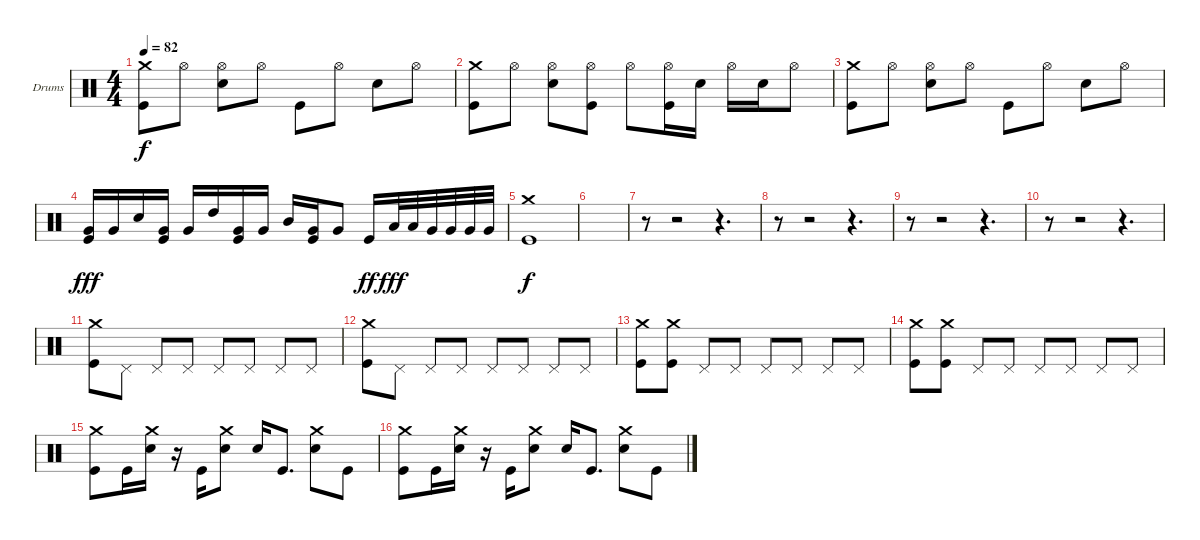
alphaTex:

\bracketExtendMode groupsimilarinstruments
\firstSystemTrackNameOrientation horizontal
\otherSystemsTrackNameOrientation horizontal
\track ("Drumkit" "Drums") {instrument percussion}
\staff {score}
\articulation defaults
\ts (4 4)
\tempo 82
\clef neutral
\ks c
("Crash medium (hit)" "Kick (hit)").8{dy f} "Hi-Hat (open)".8 ("Hi-Hat (open)" "Snare (hit) 2").8 "Hi-Hat (open)".8 "Kick (hit)".8 "Hi-Hat (open)".8 "Snare (hit) 2".8 "Hi-Hat (open)".8 |
("Crash medium (hit)" "Kick (hit)").8 "Hi-Hat (open)".8 ("Hi-Hat (open)" "Snare (hit) 2").8 ("Hi-Hat (open)" "Kick (hit)").8 "Hi-Hat (open)".8 ("Hi-Hat (open)" "Kick (hit)").16 "Snare (hit) 2".16 "Hi-Hat (open)".16 "Snare (hit) 2".16 "Hi-Hat (open)".8 |
("Crash medium (hit)" "Kick (hit)").8 "Hi-Hat (open)".8 ("Hi-Hat (open)" "Snare (hit) 2").8 "Hi-Hat (open)".8 "Kick (hit)".8 "Hi-Hat (open)".8 "Snare (hit) 2".8 "Hi-Hat (open)".8 |
("Very Low Tom (hit)" "Kick (hit)").16{dy fff} "Very Low Tom (hit)".16 "Snare (hit) 2".16 ("Very Low Tom (hit)" "Kick (hit)").16 "Very Low Tom (hit)".16 "High Tom (hit)".16 ("Very Low Tom (hit)" "Kick (hit)").16 "Very Low Tom (hit)".16 "Mid Tom (hit)".16 ("Very Low Tom (hit)" "Kick (hit)").16 "Very Low Tom (hit)".8 "Kick (hit)".16{dy ff} "Low Tom (hit)".32{dy fff} "Low Tom (hit)".32 "Very Low Tom (hit)".32 "Very Low Tom (hit)".32 "Very Low Tom (hit)".32 "Very Low Tom (hit)".32 |
("Crash medium (hit)" "Kick (hit)").1{dy f} |
|
r.8 r.2 r.4{d} |
r.8 r.2 r.4{d} |
r.8 r.2 r.4{d} |
r.8 r.2 r.4{d} |
("Crash medium (hit)" "Kick (hit)").8 "Pedal Hi-Hat (hit)".8 "Pedal Hi-Hat (hit)".8 "Pedal Hi-Hat (hit)".8 "Pedal Hi-Hat (hit)".8 "Pedal Hi-Hat (hit)".8 "Pedal Hi-Hat (hit)".8 "Pedal Hi-Hat (hit)".8 |
("Crash medium (hit)" "Kick (hit)").8 "Pedal Hi-Hat (hit)".8 "Pedal Hi-Hat (hit)".8 "Pedal Hi-Hat (hit)".8 "Pedal Hi-Hat (hit)".8 "Pedal Hi-Hat (hit)".8 "Pedal Hi-Hat (hit)".8 "Pedal Hi-Hat (hit)".8 |
("Crash medium (hit)" "Kick (hit)").8 ("Crash medium (hit)" "Kick (hit)").8 "Pedal Hi-Hat (hit)".8 "Pedal Hi-Hat (hit)".8 "Pedal Hi-Hat (hit)".8 "Pedal Hi-Hat (hit)".8 "Pedal Hi-Hat (hit)".8 "Pedal Hi-Hat (hit)".8 |
("Crash medium (hit)" "Kick (hit)").8 ("Crash medium (hit)" "Kick (hit)").8 "Pedal Hi-Hat (hit)".8 "Pedal Hi-Hat (hit)".8 "Pedal Hi-Hat (hit)".8 "Pedal Hi-Hat (hit)".8 "Pedal Hi-Hat (hit)".8 "Pedal Hi-Hat (hit)".8 |
("Crash medium (hit)" "Kick (hit)").8 "Kick (hit)".16 ("Crash medium (hit)" "Snare (hit) 2").16 r.16 "Kick (hit)".16 ("Crash medium (hit)" "Snare (hit) 2").8 "Snare (hit) 2".16 "Kick (hit)".8{d} ("Crash medium (hit)" "Snare (hit) 2").8 "Kick (hit)".8 |
("Crash medium (hit)" "Kick (hit)").8 "Kick (hit)".16 ("Crash medium (hit)" "Snare (hit) 2").16 r.16 "Kick (hit)".16 ("Crash medium (hit)" "Snare (hit) 2").8 "Snare (hit) 2".16 "Kick (hit)".8{d} ("Crash medium (hit)" "Snare (hit) 2").8 "Kick (hit)".8
